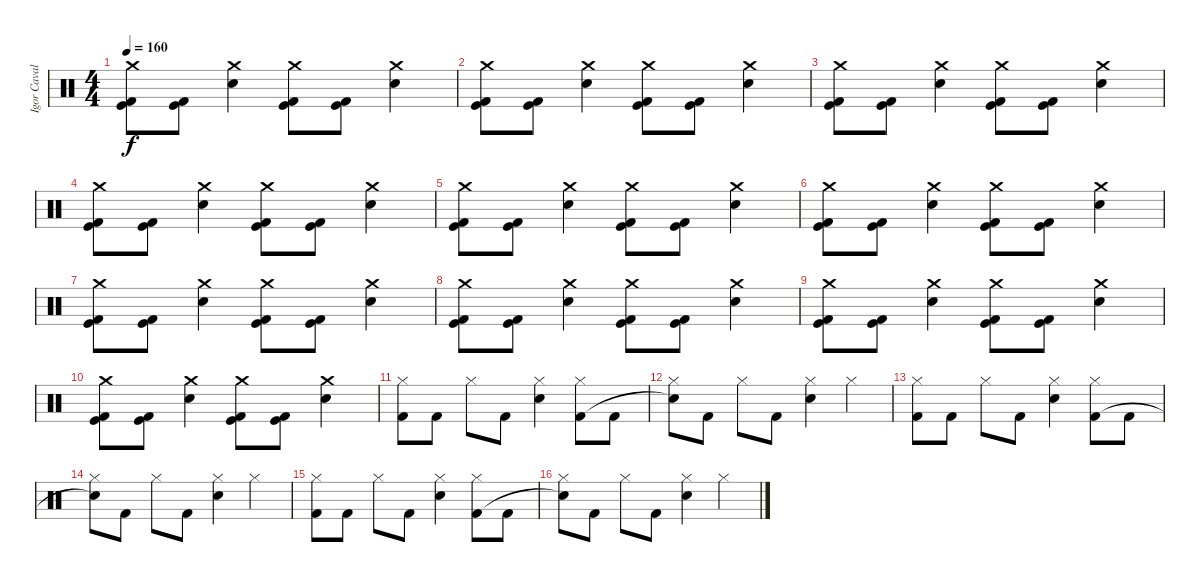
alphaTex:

\track ("Igor Cavalera" "Igor Caval") {instrument percussion}
\staff {score}
\articulation defaults
\ts (4 4)
\tempo 160
\clef neutral
\ks c
("Crash medium (hit)" "Kick (hit)" "Kick (hit) 2").8{dy f} ("Kick (hit)" "Kick (hit) 2").8 ("Crash medium (hit)" "Snare (hit) 2").4 ("Crash medium (hit)" "Kick (hit)" "Kick (hit) 2").8 ("Kick (hit)" "Kick (hit) 2").8 ("Crash medium (hit)" "Snare (hit) 2").4 |
("Crash medium (hit)" "Kick (hit)" "Kick (hit) 2").8 ("Kick (hit)" "Kick (hit) 2").8 ("Crash medium (hit)" "Snare (hit) 2").4 ("Crash medium (hit)" "Kick (hit)" "Kick (hit) 2").8 ("Kick (hit)" "Kick (hit) 2").8 ("Crash medium (hit)" "Snare (hit) 2").4 |
("Crash medium (hit)" "Kick (hit)" "Kick (hit) 2").8 ("Kick (hit)" "Kick (hit) 2").8 ("Crash medium (hit)" "Snare (hit) 2").4 ("Crash medium (hit)" "Kick (hit)" "Kick (hit) 2").8 ("Kick (hit)" "Kick (hit) 2").8 ("Crash medium (hit)" "Snare (hit) 2").4 |
("Crash medium (hit)" "Kick (hit)" "Kick (hit) 2").8 ("Kick (hit)" "Kick (hit) 2").8 ("Crash medium (hit)" "Snare (hit) 2").4 ("Crash medium (hit)" "Kick (hit)" "Kick (hit) 2").8 ("Kick (hit)" "Kick (hit) 2").8 ("Crash medium (hit)" "Snare (hit) 2").4 |
("Crash medium (hit)" "Kick (hit)" "Kick (hit) 2").8 ("Kick (hit)" "Kick (hit) 2").8 ("Crash medium (hit)" "Snare (hit) 2").4 ("Crash medium (hit)" "Kick (hit)" "Kick (hit) 2").8 ("Kick (hit)" "Kick (hit) 2").8 ("Crash medium (hit)" "Snare (hit) 2").4 |
("Crash medium (hit)" "Kick (hit)" "Kick (hit) 2").8 ("Kick (hit)" "Kick (hit) 2").8 ("Crash medium (hit)" "Snare (hit) 2").4 ("Crash medium (hit)" "Kick (hit)" "Kick (hit) 2").8 ("Kick (hit)" "Kick (hit) 2").8 ("Crash medium (hit)" "Snare (hit) 2").4 |
("Crash medium (hit)" "Kick (hit)" "Kick (hit) 2").8 ("Kick (hit)" "Kick (hit) 2").8 ("Crash medium (hit)" "Snare (hit) 2").4 ("Crash medium (hit)" "Kick (hit)" "Kick (hit) 2").8 ("Kick (hit)" "Kick (hit) 2").8 ("Crash medium (hit)" "Snare (hit) 2").4 |
("Crash medium (hit)" "Kick (hit)" "Kick (hit) 2").8 ("Kick (hit)" "Kick (hit) 2").8 ("Crash medium (hit)" "Snare (hit) 2").4 ("Crash medium (hit)" "Kick (hit)" "Kick (hit) 2").8 ("Kick (hit)" "Kick (hit) 2").8 ("Crash medium (hit)" "Snare (hit) 2").4 |
("Crash medium (hit)" "Kick (hit)" "Kick (hit) 2").8 ("Kick (hit)" "Kick (hit) 2").8 ("Crash medium (hit)" "Snare (hit) 2").4 ("Crash medium (hit)" "Kick (hit)" "Kick (hit) 2").8 ("Kick (hit)" "Kick (hit) 2").8 ("Crash medium (hit)" "Snare (hit) 2").4 |
("Crash medium (hit)" "Kick (hit)" "Kick (hit) 2").8 ("Kick (hit)" "Kick (hit) 2").8 ("Crash medium (hit)" "Snare (hit) 2").4 ("Crash medium (hit)" "Kick (hit)" "Kick (hit) 2").8 ("Kick (hit)" "Kick (hit) 2").8 ("Crash medium (hit)" "Snare (hit) 2").4 |
("Hi-Hat (closed)" "Kick (hit) 2").8 "Kick (hit) 2".8 "Hi-Hat (closed)".8 "Kick (hit) 2".8 ("Hi-Hat (closed)" "Snare (hit) 2").4 ("Hi-Hat (closed)" "Kick (hit) 2").8 "Kick (hit) 2".8 |
("Hi-Hat (closed)" "Snare (hit)"{t}).8 "Kick (hit) 2".8 "Hi-Hat (closed)".8 "Kick (hit) 2".8 ("Hi-Hat (closed)" "Snare (hit) 2").4 "Hi-Hat (closed)".4 |
("Hi-Hat (closed)" "Kick (hit) 2").8 "Kick (hit) 2".8 "Hi-Hat (closed)".8 "Kick (hit) 2".8 ("Hi-Hat (closed)" "Snare (hit) 2").4 ("Hi-Hat (closed)" "Kick (hit) 2").8 "Kick (hit) 2".8 |
("Hi-Hat (closed)" "Snare (hit)"{t}).8 "Kick (hit) 2".8 "Hi-Hat (closed)".8 "Kick (hit) 2".8 ("Hi-Hat (closed)" "Snare (hit) 2").4 "Hi-Hat (closed)".4 |
("Hi-Hat (closed)" "Kick (hit) 2").8 "Kick (hit) 2".8 "Hi-Hat (closed)".8 "Kick (hit) 2".8 ("Hi-Hat (closed)" "Snare (hit) 2").4 ("Hi-Hat (closed)" "Kick (hit) 2").8 "Kick (hit) 2".8 |
("Hi-Hat (closed)" "Snare (hit)"{t}).8 "Kick (hit) 2".8 "Hi-Hat (closed)".8 "Kick (hit) 2".8 ("Hi-Hat (closed)" "Snare (hit) 2").4 "Hi-Hat (closed)".4
